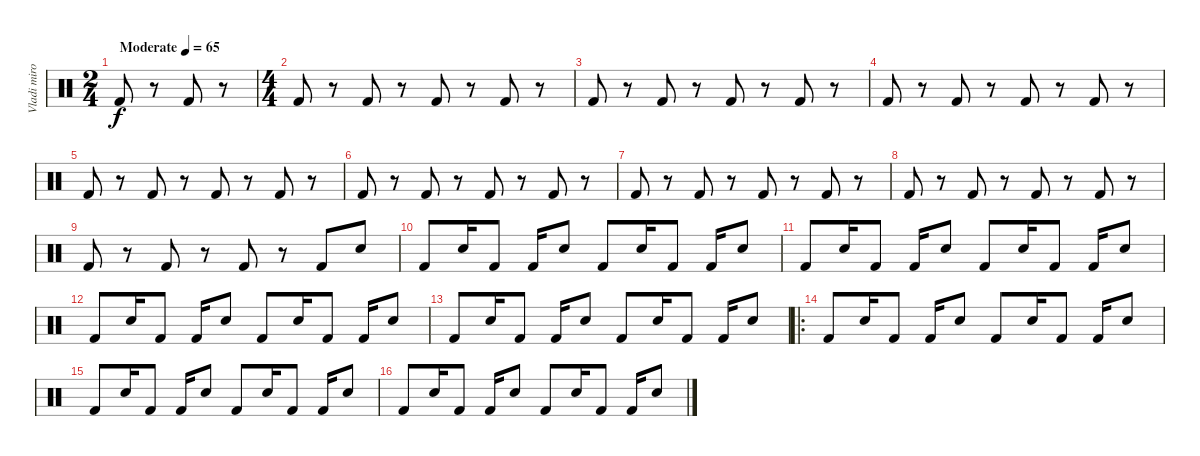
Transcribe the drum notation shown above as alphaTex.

\track ("Vladi miro" "Vladi miro") {solo instrument percussion}
\staff {score}
\articulation defaults
\ts (2 4)
\tempo (65 "Moderate")
\clef neutral
\ks c "Kick (hit) 2".8{dy f}
r.8 "Kick (hit) 2".8 r.8 |
\ts (4 4)
"Kick (hit) 2".8 r.8 "Kick (hit) 2".8 r.8 "Kick (hit) 2".8 r.8 "Kick (hit) 2".8 r.8 |
"Kick (hit) 2".8 r.8 "Kick (hit) 2".8 r.8 "Kick (hit) 2".8 r.8 "Kick (hit) 2".8 r.8 |
"Kick (hit) 2".8 r.8 "Kick (hit) 2".8 r.8 "Kick (hit) 2".8 r.8 "Kick (hit) 2".8 r.8 |
"Kick (hit) 2".8 r.8 "Kick (hit) 2".8 r.8 "Kick (hit) 2".8 r.8 "Kick (hit) 2".8 r.8 |
"Kick (hit) 2".8 r.8 "Kick (hit) 2".8 r.8 "Kick (hit) 2".8 r.8 "Kick (hit) 2".8 r.8 |
"Kick (hit) 2".8 r.8 "Kick (hit) 2".8 r.8 "Kick (hit) 2".8 r.8 "Kick (hit) 2".8 r.8 |
"Kick (hit) 2".8 r.8 "Kick (hit) 2".8 r.8 "Kick (hit) 2".8 r.8 "Kick (hit) 2".8 r.8 |
"Kick (hit) 2".8 r.8 "Kick (hit) 2".8 r.8 "Kick (hit) 2".8 r.8 "Kick (hit) 2".8 "Electric Snare (hit)".8 |
"Kick (hit) 2".8 "Electric Snare (hit)".16 "Kick (hit) 2".8 "Kick (hit) 2".16 "Electric Snare (hit)".8 "Kick (hit) 2".8 "Electric Snare (hit)".16 "Kick (hit) 2".8 "Kick (hit) 2".16 "Electric Snare (hit)".8 |
"Kick (hit) 2".8 "Electric Snare (hit)".16 "Kick (hit) 2".8 "Kick (hit) 2".16 "Electric Snare (hit)".8 "Kick (hit) 2".8 "Electric Snare (hit)".16 "Kick (hit) 2".8 "Kick (hit) 2".16 "Electric Snare (hit)".8 |
"Kick (hit) 2".8 "Electric Snare (hit)".16 "Kick (hit) 2".8 "Kick (hit) 2".16 "Electric Snare (hit)".8 "Kick (hit) 2".8 "Electric Snare (hit)".16 "Kick (hit) 2".8 "Kick (hit) 2".16 "Electric Snare (hit)".8 |
"Kick (hit) 2".8 "Electric Snare (hit)".16 "Kick (hit) 2".8 "Kick (hit) 2".16 "Electric Snare (hit)".8 "Kick (hit) 2".8 "Electric Snare (hit)".16 "Kick (hit) 2".8 "Kick (hit) 2".16 "Electric Snare (hit)".8 |
\ro "Kick (hit) 2".8 "Electric Snare (hit)".16 "Kick (hit) 2".8 "Kick (hit) 2".16 "Electric Snare (hit)".8 "Kick (hit) 2".8 "Electric Snare (hit)".16 "Kick (hit) 2".8 "Kick (hit) 2".16 "Electric Snare (hit)".8
|
"Kick (hit) 2".8 "Electric Snare (hit)".16 "Kick (hit) 2".8 "Kick (hit) 2".16 "Electric Snare (hit)".8 "Kick (hit) 2".8 "Electric Snare (hit)".16 "Kick (hit) 2".8 "Kick (hit) 2".16 "Electric Snare (hit)".8 |
"Kick (hit) 2".8 "Electric Snare (hit)".16 "Kick (hit) 2".8 "Kick (hit) 2".16 "Electric Snare (hit)".8 "Kick (hit) 2".8 "Electric Snare (hit)".16 "Kick (hit) 2".8 "Kick (hit) 2".16 "Electric Snare (hit)".8
